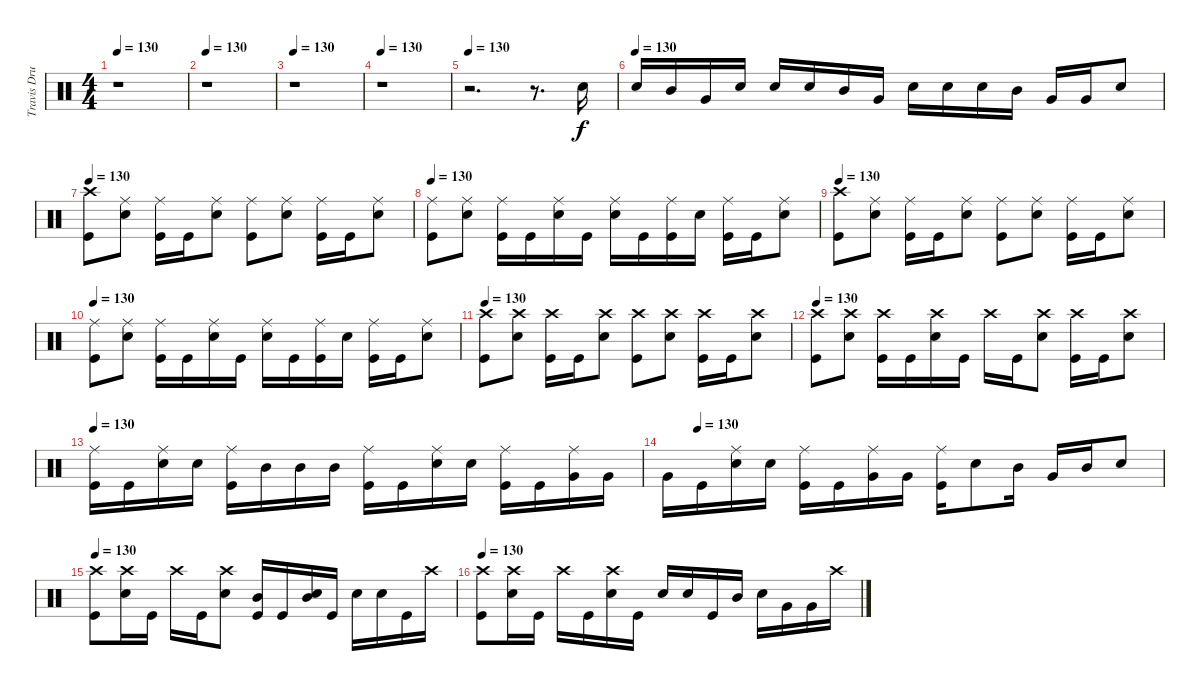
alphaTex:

\track ("Travis Drums" "Travis Dru") {instrument percussion}
\staff {score}
\articulation defaults
\ts (4 4)
\tempo 130
\clef neutral
\ks c
r.1{dy f} |
\tempo 130
r.1 |
\tempo 130
r.1 |
\tempo 130
r.1 |
\tempo 130
r.2{d} r.8{d} "Snare (hit) 2".16 |
\tempo (130)
"Snare (hit) 2".16 "Mid Tom (hit)".16 "Very Low Tom (hit)".16 "Snare (hit) 2".16 "Snare (hit) 2".16 "Snare (hit) 2".16 "Mid Tom (hit)".16 "Very Low Tom (hit)".16 "Snare (hit) 2".16 "Snare (hit) 2".16 "Snare (hit) 2".16 "Mid Tom (hit)".16 "Very Low Tom (hit)".16 "Very Low Tom (hit)".16 "Snare (hit) 2".8 |
\tempo 130
("Crash high (hit)" "Kick (hit)").8 ("Ride (middle)" "Snare (hit) 2").8 ("Ride (middle)" "Kick (hit)").16 "Kick (hit)".16 ("Ride (middle)" "Snare (hit) 2").8 ("Ride (middle)" "Kick (hit)").8 ("Ride (middle)" "Snare (hit) 2").8 ("Ride (middle)" "Kick (hit)").16 "Kick (hit)".16 ("Ride (middle)" "Snare (hit) 2").8 |
\tempo 130
("Ride (middle)" "Kick (hit)").8 ("Ride (middle)" "Snare (hit) 2").8 ("Ride (middle)" "Kick (hit)").16 "Kick (hit)".16 ("Ride (middle)" "Snare (hit) 2").16 "Kick (hit)".16 ("Ride (middle)" "Snare (hit) 2").16 "Kick (hit)".16 ("Ride (middle)" "Kick (hit)").16 "Snare (hit) 2".16 ("Ride (middle)" "Kick (hit)").16 "Kick (hit)".16 ("Ride (middle)" "Snare (hit) 2").8 |
\tempo 130
("Crash high (hit)" "Kick (hit)").8 ("Ride (middle)" "Snare (hit) 2").8 ("Ride (middle)" "Kick (hit)").16 "Kick (hit)".16 ("Ride (middle)" "Snare (hit) 2").8 ("Ride (middle)" "Kick (hit)").8 ("Ride (middle)" "Snare (hit) 2").8 ("Ride (middle)" "Kick (hit)").16 "Kick (hit)".16 ("Ride (middle)" "Snare (hit) 2").8 |
\tempo 130
("Ride (middle)" "Kick (hit)").8 ("Ride (middle)" "Snare (hit) 2").8 ("Ride (middle)" "Kick (hit)").16 "Kick (hit)".16 ("Ride (middle)" "Snare (hit) 2").16 "Kick (hit)".16 ("Ride (middle)" "Snare (hit) 2").16 "Kick (hit)".16 ("Ride (middle)" "Kick (hit)").16 "Snare (hit) 2".16 ("Ride (middle)" "Kick (hit)").16 "Kick (hit)".16 ("Ride (middle)" "Snare (hit) 2").8 |
\tempo 130
("Crash high (hit)" "Kick (hit)").8 ("Crash high (hit)" "Snare (hit) 2").8 ("Crash high (hit)" "Kick (hit)").16 "Kick (hit)".16 ("Crash high (hit)" "Snare (hit) 2").8 ("Crash high (hit)" "Kick (hit)").8 ("Crash high (hit)" "Snare (hit) 2").8 ("Crash high (hit)" "Kick (hit)").16 "Kick (hit)".16 ("Crash high (hit)" "Snare (hit) 2").8 |
\tempo 130
("Crash high (hit)" "Kick (hit)").8 ("Crash high (hit)" "Snare (hit) 2").8 ("Crash high (hit)" "Kick (hit)").16 "Kick (hit)".16 ("Crash high (hit)" "Snare (hit) 2").16 "Kick (hit)".16 "Crash high (hit)".16 "Kick (hit)".16 ("Crash high (hit)" "Snare (hit) 2").8 ("Crash high (hit)" "Kick (hit)").16 "Kick (hit)".16 ("Crash high (hit)" "Snare (hit) 2").8 |
\tempo 130
("Ride (middle)" "Kick (hit)").16 "Kick (hit)".16 ("Ride (middle)" "Snare (hit) 2").16 "Snare (hit) 2".16 ("Ride (middle)" "Kick (hit)").16 "Mid Tom (hit)".16 "Mid Tom (hit)".16 "Mid Tom (hit)".16 ("Ride (middle)" "Kick (hit)").16 "Kick (hit)".16 ("Ride (middle)" "Snare (hit) 2").16 "Snare (hit) 2".16 ("Ride (middle)" "Kick (hit)").16 "Kick (hit)".16 ("Ride (middle)" "Very Low Tom (hit)").16 "Very Low Tom (hit)".16 |
\tempo (130 0.0625)
"Very Low Tom (hit)".16 "Kick (hit)".16 ("Ride (middle)" "Snare (hit) 2").16 "Snare (hit) 2".16 ("Ride (middle)" "Kick (hit)").16 "Kick (hit)".16 ("Ride (middle)" "Very Low Tom (hit)").16 "Very Low Tom (hit)".16 ("Ride (middle)" "Kick (hit)").16 "Snare (hit) 2".8 "Mid Tom (hit)".16 "Very Low Tom (hit)".16 "Mid Tom (hit)".16 "Snare (hit) 2".8 |
\tempo 130
("Crash high (hit)" "Kick (hit)").8 ("Crash high (hit)" "Snare (hit) 2").16 "Kick (hit)".16 "Crash high (hit)".16 "Kick (hit)".16 ("Crash high (hit)" "Snare (hit) 2").8 ("Mid Tom (hit)" "Kick (hit)").16 "Kick (hit)".16 ("Mid Tom (hit)" "Snare (hit) 2").16 "Kick (hit)".16 "Snare (hit) 2".16 "Snare (hit) 2".16 "Kick (hit)".16 "Crash high (hit)".16 |
\tempo 130
("Crash high (hit)" "Kick (hit)").8 ("Crash high (hit)" "Snare (hit) 2").16 "Kick (hit)".16 "Crash high (hit)".16 "Kick (hit)".16 ("Crash high (hit)" "Snare (hit) 2").16 "Kick (hit)".16 "Snare (hit) 2".16 "Snare (hit) 2".16 "Kick (hit)".16 "Mid Tom (hit)".16 "Snare (hit) 2".16 "Very Low Tom (hit)".16 "Very Low Tom (hit)".16 "Crash high (hit)".16
